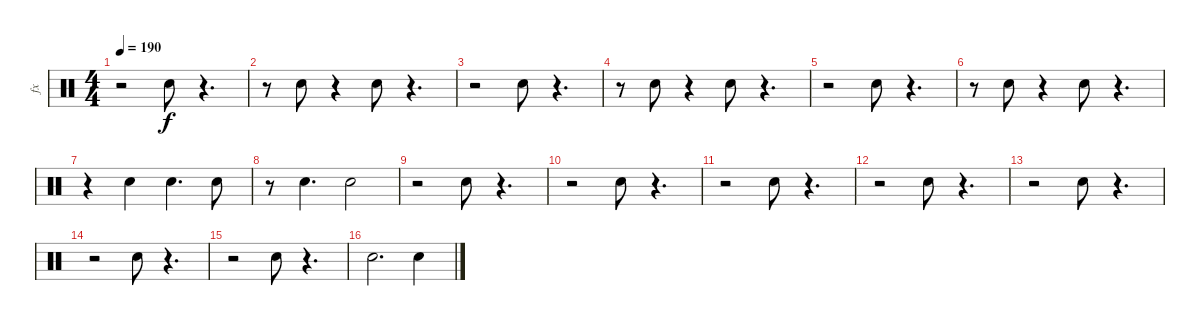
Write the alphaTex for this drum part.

\track ("fx" "fx") {instrument percussion}
\staff {score}
\articulation defaults
\ts (4 4)
\tempo 190
\clef neutral
\ks c
r.2{dy f} "Snare (hit) 2".8 r.4{d} |
r.8 "Snare (hit) 2".8 r.4 "Snare (hit) 2".8 r.4{d} |
r.2 "Snare (hit) 2".8 r.4{d} |
r.8 "Snare (hit) 2".8 r.4 "Snare (hit) 2".8 r.4{d} |
r.2 "Snare (hit) 2".8 r.4{d} |
r.8 "Snare (hit) 2".8 r.4 "Snare (hit) 2".8 r.4{d} |
r.4 "Snare (hit) 2".4 "Snare (hit) 2".4{d} "Snare (hit) 2".8 |
r.8 "Snare (hit) 2".4{d} "Snare (hit) 2".2 |
r.2 "Snare (hit) 2".8 r.4{d} |
r.2 "Snare (hit) 2".8 r.4{d} |
r.2 "Snare (hit) 2".8 r.4{d} |
r.2 "Snare (hit) 2".8 r.4{d} |
r.2 "Snare (hit) 2".8 r.4{d} |
r.2 "Snare (hit) 2".8 r.4{d} |
r.2 "Snare (hit) 2".8 r.4{d} |
"Snare (hit) 2".2{d} "Snare (hit) 2".4
